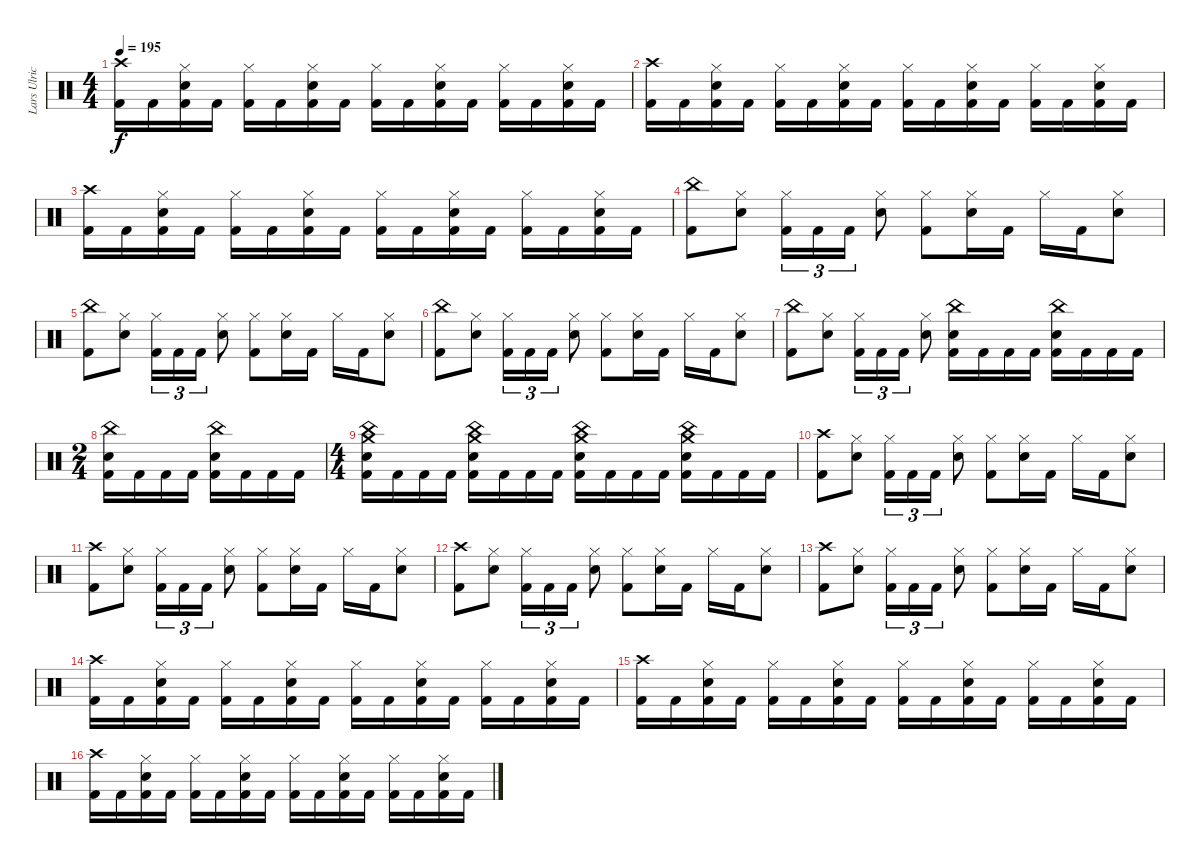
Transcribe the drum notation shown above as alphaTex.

\track ("Lars Ulrich" "Lars Ulric") {instrument percussion}
\staff {score}
\articulation defaults
\ts (4 4)
\tempo 195
\clef neutral
\ks c
("Crash high (hit)" "Kick (hit) 2").16{dy f} "Kick (hit) 2".16 ("Hi-Hat (closed)" "Electric Snare (hit)" "Kick (hit) 2").16 "Kick (hit) 2".16 ("Hi-Hat (closed)" "Kick (hit) 2").16 "Kick (hit) 2".16 ("Hi-Hat (closed)" "Electric Snare (hit)" "Kick (hit) 2").16 "Kick (hit) 2".16 ("Hi-Hat (closed)" "Kick (hit) 2").16 "Kick (hit) 2".16 ("Hi-Hat (closed)" "Electric Snare (hit)" "Kick (hit) 2").16 "Kick (hit) 2".16 ("Hi-Hat (closed)" "Kick (hit) 2").16 "Kick (hit) 2".16 ("Hi-Hat (closed)" "Electric Snare (hit)" "Kick (hit) 2").16 "Kick (hit) 2".16 |
("Crash high (hit)" "Kick (hit) 2").16 "Kick (hit) 2".16 ("Hi-Hat (closed)" "Electric Snare (hit)" "Kick (hit) 2").16 "Kick (hit) 2".16 ("Hi-Hat (closed)" "Kick (hit) 2").16 "Kick (hit) 2".16 ("Hi-Hat (closed)" "Electric Snare (hit)" "Kick (hit) 2").16 "Kick (hit) 2".16 ("Hi-Hat (closed)" "Kick (hit) 2").16 "Kick (hit) 2".16 ("Hi-Hat (closed)" "Electric Snare (hit)" "Kick (hit) 2").16 "Kick (hit) 2".16 ("Hi-Hat (closed)" "Kick (hit) 2").16 "Kick (hit) 2".16 ("Hi-Hat (closed)" "Electric Snare (hit)" "Kick (hit) 2").16 "Kick (hit) 2".16 |
("Crash high (hit)" "Kick (hit) 2").16 "Kick (hit) 2".16 ("Hi-Hat (closed)" "Electric Snare (hit)" "Kick (hit) 2").16 "Kick (hit) 2".16 ("Hi-Hat (closed)" "Kick (hit) 2").16 "Kick (hit) 2".16 ("Hi-Hat (closed)" "Electric Snare (hit)" "Kick (hit) 2").16 "Kick (hit) 2".16 ("Hi-Hat (closed)" "Kick (hit) 2").16 "Kick (hit) 2".16 ("Hi-Hat (closed)" "Electric Snare (hit)" "Kick (hit) 2").16 "Kick (hit) 2".16 ("Hi-Hat (closed)" "Kick (hit) 2").16 "Kick (hit) 2".16 ("Hi-Hat (closed)" "Electric Snare (hit)" "Kick (hit) 2").16 "Kick (hit) 2".16 |
("China (hit)" "Kick (hit) 2").8 ("Hi-Hat (closed)" "Electric Snare (hit)").8 ("Hi-Hat (closed)" "Kick (hit) 2").16{tu (3 2)} "Kick (hit) 2".16{tu (3 2)} "Kick (hit) 2".16{tu (3 2)} ("Hi-Hat (closed)" "Electric Snare (hit)").8 ("Hi-Hat (closed)" "Kick (hit) 2").8 ("Hi-Hat (closed)" "Electric Snare (hit)").16 "Kick (hit) 2".16 "Hi-Hat (closed)".16 "Kick (hit) 2".16 ("Hi-Hat (closed)" "Electric Snare (hit)").8 |
("China (hit)" "Kick (hit) 2").8 ("Hi-Hat (closed)" "Electric Snare (hit)").8 ("Hi-Hat (closed)" "Kick (hit) 2").16{tu (3 2)} "Kick (hit) 2".16{tu (3 2)} "Kick (hit) 2".16{tu (3 2)} ("Hi-Hat (closed)" "Electric Snare (hit)").8 ("Hi-Hat (closed)" "Kick (hit) 2").8 ("Hi-Hat (closed)" "Electric Snare (hit)").16 "Kick (hit) 2".16 "Hi-Hat (closed)".16 "Kick (hit) 2".16 ("Hi-Hat (closed)" "Electric Snare (hit)").8 |
("China (hit)" "Kick (hit) 2").8 ("Hi-Hat (closed)" "Electric Snare (hit)").8 ("Hi-Hat (closed)" "Kick (hit) 2").16{tu (3 2)} "Kick (hit) 2".16{tu (3 2)} "Kick (hit) 2".16{tu (3 2)} ("Hi-Hat (closed)" "Electric Snare (hit)").8 ("Hi-Hat (closed)" "Kick (hit) 2").8 ("Hi-Hat (closed)" "Electric Snare (hit)").16 "Kick (hit) 2".16 "Hi-Hat (closed)".16 "Kick (hit) 2".16 ("Hi-Hat (closed)" "Electric Snare (hit)").8 |
("China (hit)" "Kick (hit) 2").8 ("Hi-Hat (closed)" "Electric Snare (hit)").8 ("Hi-Hat (closed)" "Kick (hit) 2").16{tu (3 2)} "Kick (hit) 2".16{tu (3 2)} "Kick (hit) 2".16{tu (3 2)} ("Hi-Hat (closed)" "Electric Snare (hit)").8 ("China (hit)" "Electric Snare (hit)" "Kick (hit) 2").16 "Kick (hit) 2".16 "Kick (hit) 2".16 "Kick (hit) 2".16 ("China (hit)" "Electric Snare (hit)" "Kick (hit) 2").16 "Kick (hit) 2".16 "Kick (hit) 2".16 "Kick (hit) 2".16 |
\ts (2 4)
("China (hit)" "Electric Snare (hit)" "Kick (hit) 2").16 "Kick (hit) 2".16 "Kick (hit) 2".16 "Kick (hit) 2".16 ("China (hit)" "Electric Snare (hit)" "Kick (hit) 2").16 "Kick (hit) 2".16 "Kick (hit) 2".16 "Kick (hit) 2".16 |
\ts (4 4)
("China (hit)" "Crash medium (hit)" "Electric Snare (hit)" "Kick (hit) 2").16 "Kick (hit) 2".16 "Kick (hit) 2".16 "Kick (hit) 2".16 ("China (hit)" "Crash medium (hit)" "Electric Snare (hit)" "Kick (hit) 2").16 "Kick (hit) 2".16 "Kick (hit) 2".16 "Kick (hit) 2".16 ("China (hit)" "Crash medium (hit)" "Electric Snare (hit)" "Kick (hit) 2").16 "Kick (hit) 2".16 "Kick (hit) 2".16 "Kick (hit) 2".16 ("China (hit)" "Crash medium (hit)" "Electric Snare (hit)" "Kick (hit) 2").16 "Kick (hit) 2".16 "Kick (hit) 2".16 "Kick (hit) 2".16 |
("Crash high (hit)" "Kick (hit) 2").8 ("Hi-Hat (closed)" "Electric Snare (hit)").8 ("Hi-Hat (closed)" "Kick (hit) 2").16{tu (3 2)} "Kick (hit) 2".16{tu (3 2)} "Kick (hit) 2".16{tu (3 2)} ("Hi-Hat (closed)" "Electric Snare (hit)").8 ("Hi-Hat (closed)" "Kick (hit) 2").8 ("Hi-Hat (closed)" "Electric Snare (hit)").16 "Kick (hit) 2".16 "Hi-Hat (closed)".16 "Kick (hit) 2".16 ("Hi-Hat (closed)" "Electric Snare (hit)").8 |
("Crash high (hit)" "Kick (hit) 2").8 ("Hi-Hat (closed)" "Electric Snare (hit)").8 ("Hi-Hat (closed)" "Kick (hit) 2").16{tu (3 2)} "Kick (hit) 2".16{tu (3 2)} "Kick (hit) 2".16{tu (3 2)} ("Hi-Hat (closed)" "Electric Snare (hit)").8 ("Hi-Hat (closed)" "Kick (hit) 2").8 ("Hi-Hat (closed)" "Electric Snare (hit)").16 "Kick (hit) 2".16 "Hi-Hat (closed)".16 "Kick (hit) 2".16 ("Hi-Hat (closed)" "Electric Snare (hit)").8 |
("Crash high (hit)" "Kick (hit) 2").8 ("Hi-Hat (closed)" "Electric Snare (hit)").8 ("Hi-Hat (closed)" "Kick (hit) 2").16{tu (3 2)} "Kick (hit) 2".16{tu (3 2)} "Kick (hit) 2".16{tu (3 2)} ("Hi-Hat (closed)" "Electric Snare (hit)").8 ("Hi-Hat (closed)" "Kick (hit) 2").8 ("Hi-Hat (closed)" "Electric Snare (hit)").16 "Kick (hit) 2".16 "Hi-Hat (closed)".16 "Kick (hit) 2".16 ("Hi-Hat (closed)" "Electric Snare (hit)").8 |
("Crash high (hit)" "Kick (hit) 2").8 ("Hi-Hat (closed)" "Electric Snare (hit)").8 ("Hi-Hat (closed)" "Kick (hit) 2").16{tu (3 2)} "Kick (hit) 2".16{tu (3 2)} "Kick (hit) 2".16{tu (3 2)} ("Hi-Hat (closed)" "Electric Snare (hit)").8 ("Hi-Hat (closed)" "Kick (hit) 2").8 ("Hi-Hat (closed)" "Electric Snare (hit)").16 "Kick (hit) 2".16 "Hi-Hat (closed)".16 "Kick (hit) 2".16 ("Hi-Hat (closed)" "Electric Snare (hit)").8 |
("Crash high (hit)" "Kick (hit) 2").16 "Kick (hit) 2".16 ("Hi-Hat (closed)" "Electric Snare (hit)" "Kick (hit) 2").16 "Kick (hit) 2".16 ("Hi-Hat (closed)" "Kick (hit) 2").16 "Kick (hit) 2".16 ("Hi-Hat (closed)" "Electric Snare (hit)" "Kick (hit) 2").16 "Kick (hit) 2".16 ("Hi-Hat (closed)" "Kick (hit) 2").16 "Kick (hit) 2".16 ("Hi-Hat (closed)" "Electric Snare (hit)" "Kick (hit) 2").16 "Kick (hit) 2".16 ("Hi-Hat (closed)" "Kick (hit) 2").16 "Kick (hit) 2".16 ("Hi-Hat (closed)" "Electric Snare (hit)" "Kick (hit) 2").16 "Kick (hit) 2".16 |
("Crash high (hit)" "Kick (hit) 2").16 "Kick (hit) 2".16 ("Hi-Hat (closed)" "Electric Snare (hit)" "Kick (hit) 2").16 "Kick (hit) 2".16 ("Hi-Hat (closed)" "Kick (hit) 2").16 "Kick (hit) 2".16 ("Hi-Hat (closed)" "Electric Snare (hit)" "Kick (hit) 2").16 "Kick (hit) 2".16 ("Hi-Hat (closed)" "Kick (hit) 2").16 "Kick (hit) 2".16 ("Hi-Hat (closed)" "Electric Snare (hit)" "Kick (hit) 2").16 "Kick (hit) 2".16 ("Hi-Hat (closed)" "Kick (hit) 2").16 "Kick (hit) 2".16 ("Hi-Hat (closed)" "Electric Snare (hit)" "Kick (hit) 2").16 "Kick (hit) 2".16 |
("Crash high (hit)" "Kick (hit) 2").16 "Kick (hit) 2".16 ("Hi-Hat (closed)" "Electric Snare (hit)" "Kick (hit) 2").16 "Kick (hit) 2".16 ("Hi-Hat (closed)" "Kick (hit) 2").16 "Kick (hit) 2".16 ("Hi-Hat (closed)" "Electric Snare (hit)" "Kick (hit) 2").16 "Kick (hit) 2".16 ("Hi-Hat (closed)" "Kick (hit) 2").16 "Kick (hit) 2".16 ("Hi-Hat (closed)" "Electric Snare (hit)" "Kick (hit) 2").16 "Kick (hit) 2".16 ("Hi-Hat (closed)" "Kick (hit) 2").16 "Kick (hit) 2".16 ("Hi-Hat (closed)" "Electric Snare (hit)" "Kick (hit) 2").16 "Kick (hit) 2".16
